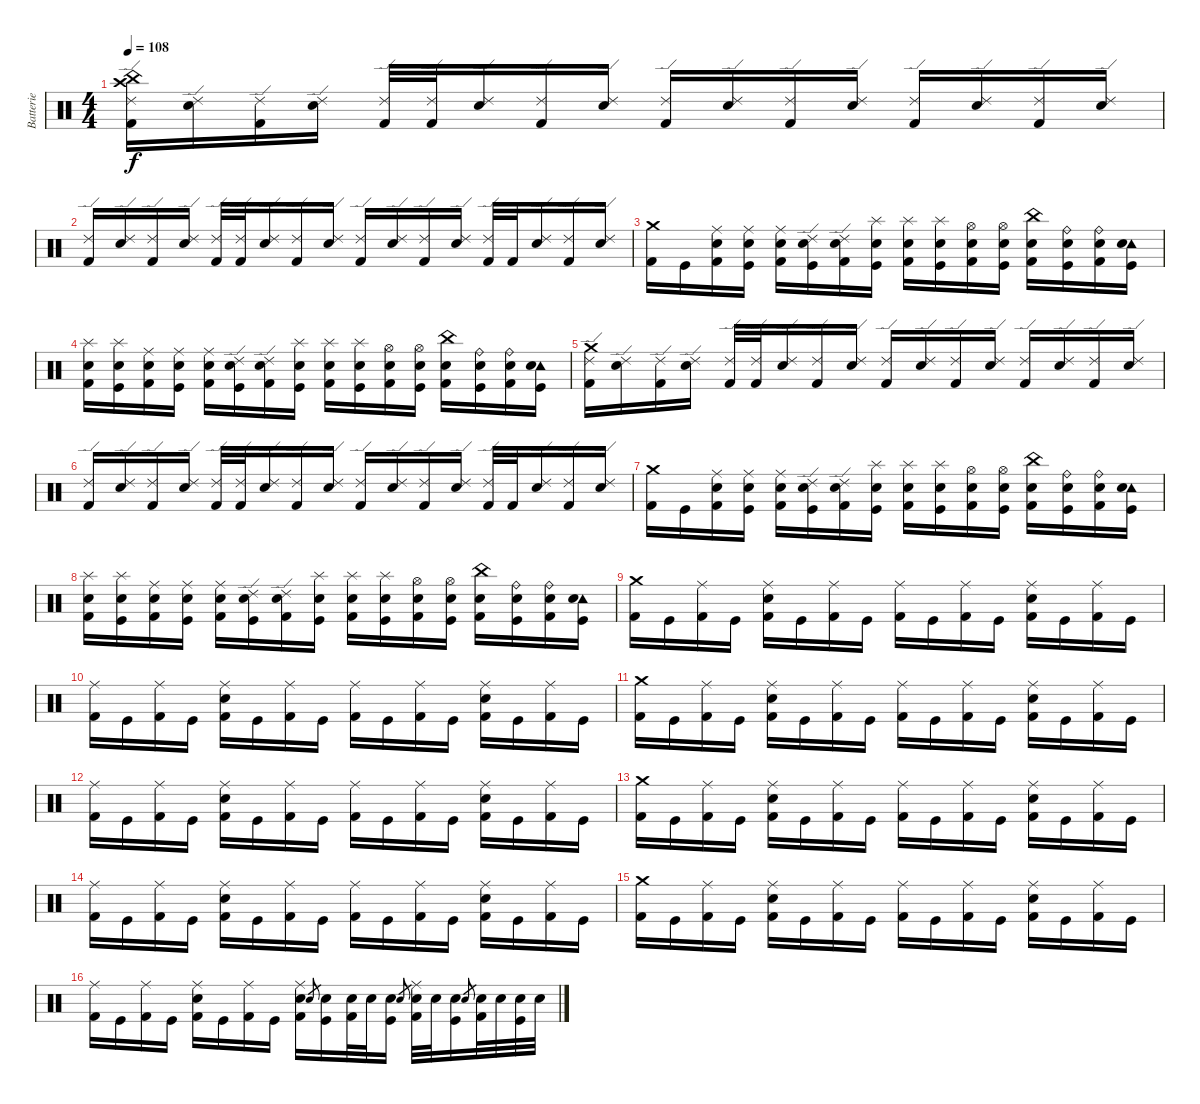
\track ("Batterie" "Batterie") {instrument percussion}
\staff {score}
\articulation defaults
\ts (4 4)
\tempo 108
\clef neutral
\ks c
("Crash high (hit)" "Ride (edge) 2" "China (hit)" "Kick (hit) 2").16{dy f} ("Ride (edge) 2" "Snare (hit) 2").16 ("Ride (edge) 2" "Kick (hit) 2").16 ("Ride (edge) 2" "Snare (hit) 2").16 ("Ride (edge) 2" "Kick (hit) 2").32 ("Ride (edge) 2" "Kick (hit) 2").32 ("Ride (edge) 2" "Snare (hit) 2").16 ("Ride (edge) 2" "Kick (hit) 2").16 ("Ride (edge) 2" "Snare (hit) 2").16 ("Ride (edge) 2" "Kick (hit) 2").16 ("Ride (edge) 2" "Snare (hit) 2").16 ("Ride (edge) 2" "Kick (hit) 2").16 ("Ride (edge) 2" "Snare (hit) 2").16 ("Ride (edge) 2" "Kick (hit) 2").16 ("Ride (edge) 2" "Snare (hit) 2").16 ("Ride (edge) 2" "Kick (hit) 2").16 ("Ride (edge) 2" "Snare (hit) 2").16 |
("Ride (edge) 2" "Kick (hit) 2").16 ("Ride (edge) 2" "Snare (hit) 2").16 ("Ride (edge) 2" "Kick (hit) 2").16 ("Ride (edge) 2" "Snare (hit) 2").16 ("Ride (edge) 2" "Kick (hit) 2").32 ("Ride (edge) 2" "Kick (hit) 2").32 ("Ride (edge) 2" "Snare (hit) 2").16 ("Ride (edge) 2" "Kick (hit) 2").16 ("Ride (edge) 2" "Snare (hit) 2").16 ("Ride (edge) 2" "Kick (hit) 2").16 ("Ride (edge) 2" "Snare (hit) 2").16 ("Ride (edge) 2" "Kick (hit) 2").16 ("Ride (edge) 2" "Snare (hit) 2").16 ("Ride (edge) 2" "Kick (hit) 2").32 "Kick (hit) 2".32 ("Ride (edge) 2" "Snare (hit) 2").16 ("Ride (edge) 2" "Kick (hit) 2").16 ("Ride (edge) 2" "Snare (hit) 2").16 |
("Crash medium (hit)" "Kick (hit) 2").16 "Kick (hit)".16 ("Ride (middle)" "Snare (hit) 2" "Kick (hit) 2").16 ("Ride (middle)" "Snare (hit) 2" "Kick (hit)").16 ("Ride (middle)" "Snare (hit) 2" "Kick (hit) 2").16 ("Ride (edge) 2" "Snare (hit) 2" "Kick (hit)").16 ("Ride (edge) 2" "Snare (hit) 2" "Kick (hit) 2").16 ("Splash (hit)" "Snare (hit) 2" "Kick (hit)").16 ("Splash (hit)" "Snare (hit) 2" "Kick (hit) 2").16 ("Splash (hit)" "Snare (hit) 2" "Kick (hit)").16 ("Hi-Hat (open)" "Snare (hit) 2" "Kick (hit) 2").16 ("Hi-Hat (open)" "Snare (hit) 2" "Kick (hit)").16 ("China (hit)" "Snare (hit) 2" "Kick (hit) 2").16 ("Ride (bell)" "Snare (hit) 2" "Kick (hit)").16 ("Ride (bell)" "Snare (hit) 2" "Kick (hit) 2").16 ("Tambourine (hit)" "Snare (hit) 2" "Kick (hit)").16 |
("Splash (hit)" "Snare (hit) 2" "Kick (hit) 2").16 ("Splash (hit)" "Snare (hit) 2" "Kick (hit)").16 ("Ride (middle)" "Snare (hit) 2" "Kick (hit) 2").16 ("Ride (middle)" "Snare (hit) 2" "Kick (hit)").16 ("Ride (middle)" "Snare (hit) 2" "Kick (hit) 2").16 ("Ride (edge) 2" "Snare (hit) 2" "Kick (hit)").16 ("Ride (edge) 2" "Snare (hit) 2" "Kick (hit) 2").16 ("Splash (hit)" "Snare (hit) 2" "Kick (hit)").16 ("Splash (hit)" "Snare (hit) 2" "Kick (hit) 2").16 ("Splash (hit)" "Snare (hit) 2" "Kick (hit)").16 ("Hi-Hat (open)" "Snare (hit) 2" "Kick (hit) 2").16 ("Hi-Hat (open)" "Snare (hit) 2" "Kick (hit)").16 ("China (hit)" "Snare (hit) 2" "Kick (hit) 2").16 ("Ride (bell)" "Snare (hit) 2" "Kick (hit)").16 ("Ride (bell)" "Snare (hit) 2" "Kick (hit) 2").16 ("Tambourine (hit)" "Snare (hit) 2" "Kick (hit)").16 |
("Crash medium (hit)" "Ride (edge) 2" "Kick (hit) 2").16 ("Ride (edge) 2" "Snare (hit) 2").16 ("Ride (edge) 2" "Kick (hit) 2").16 ("Ride (edge) 2" "Snare (hit) 2").16 ("Ride (edge) 2" "Kick (hit) 2").32 ("Ride (edge) 2" "Kick (hit) 2").32 ("Ride (edge) 2" "Snare (hit) 2").16 ("Ride (edge) 2" "Kick (hit) 2").16 ("Ride (edge) 2" "Snare (hit) 2").16 ("Ride (edge) 2" "Kick (hit) 2").16 ("Ride (edge) 2" "Snare (hit) 2").16 ("Ride (edge) 2" "Kick (hit) 2").16 ("Ride (edge) 2" "Snare (hit) 2").16 ("Ride (edge) 2" "Kick (hit) 2").16 ("Ride (edge) 2" "Snare (hit) 2").16 ("Ride (edge) 2" "Kick (hit) 2").16 ("Ride (edge) 2" "Snare (hit) 2").16 |
("Ride (edge) 2" "Kick (hit) 2").16 ("Ride (edge) 2" "Snare (hit) 2").16 ("Ride (edge) 2" "Kick (hit) 2").16 ("Ride (edge) 2" "Snare (hit) 2").16 ("Ride (edge) 2" "Kick (hit) 2").32 ("Ride (edge) 2" "Kick (hit) 2").32 ("Ride (edge) 2" "Snare (hit) 2").16 ("Ride (edge) 2" "Kick (hit) 2").16 ("Ride (edge) 2" "Snare (hit) 2").16 ("Ride (edge) 2" "Kick (hit) 2").16 ("Ride (edge) 2" "Snare (hit) 2").16 ("Ride (edge) 2" "Kick (hit) 2").16 ("Ride (edge) 2" "Snare (hit) 2").16 ("Ride (edge) 2" "Kick (hit) 2").32 "Kick (hit) 2".32 ("Ride (edge) 2" "Snare (hit) 2").16 ("Ride (edge) 2" "Kick (hit) 2").16 ("Ride (edge) 2" "Snare (hit) 2").16 |
("Crash medium (hit)" "Kick (hit) 2").16 "Kick (hit)".16 ("Ride (middle)" "Snare (hit) 2" "Kick (hit) 2").16 ("Ride (middle)" "Snare (hit) 2" "Kick (hit)").16 ("Ride (middle)" "Snare (hit) 2" "Kick (hit) 2").16 ("Ride (edge) 2" "Snare (hit) 2" "Kick (hit)").16 ("Ride (edge) 2" "Snare (hit) 2" "Kick (hit) 2").16 ("Splash (hit)" "Snare (hit) 2" "Kick (hit)").16 ("Splash (hit)" "Snare (hit) 2" "Kick (hit) 2").16 ("Splash (hit)" "Snare (hit) 2" "Kick (hit)").16 ("Hi-Hat (open)" "Snare (hit) 2" "Kick (hit) 2").16 ("Hi-Hat (open)" "Snare (hit) 2" "Kick (hit)").16 ("China (hit)" "Snare (hit) 2" "Kick (hit) 2").16 ("Ride (bell)" "Snare (hit) 2" "Kick (hit)").16 ("Ride (bell)" "Snare (hit) 2" "Kick (hit) 2").16 ("Tambourine (hit)" "Snare (hit) 2" "Kick (hit)").16 |
("Splash (hit)" "Snare (hit) 2" "Kick (hit) 2").16 ("Splash (hit)" "Snare (hit) 2" "Kick (hit)").16 ("Ride (middle)" "Snare (hit) 2" "Kick (hit) 2").16 ("Ride (middle)" "Snare (hit) 2" "Kick (hit)").16 ("Ride (middle)" "Snare (hit) 2" "Kick (hit) 2").16 ("Ride (edge) 2" "Snare (hit) 2" "Kick (hit)").16 ("Ride (edge) 2" "Snare (hit) 2" "Kick (hit) 2").16 ("Splash (hit)" "Snare (hit) 2" "Kick (hit)").16 ("Splash (hit)" "Snare (hit) 2" "Kick (hit) 2").16 ("Splash (hit)" "Snare (hit) 2" "Kick (hit)").16 ("Hi-Hat (open)" "Snare (hit) 2" "Kick (hit) 2").16 ("Hi-Hat (open)" "Snare (hit) 2" "Kick (hit)").16 ("China (hit)" "Snare (hit) 2" "Kick (hit) 2").16 ("Ride (bell)" "Snare (hit) 2" "Kick (hit)").16 ("Ride (bell)" "Snare (hit) 2" "Kick (hit) 2").16 ("Tambourine (hit)" "Snare (hit) 2" "Kick (hit)").16 |
("Crash medium (hit)" "Kick (hit) 2").16 "Kick (hit)".16 ("Ride (middle)" "Kick (hit) 2").16 "Kick (hit)".16 ("Ride (middle)" "Snare (hit) 2" "Kick (hit) 2").16 "Kick (hit)".16 ("Ride (middle)" "Kick (hit) 2").16 "Kick (hit)".16 ("Ride (middle)" "Kick (hit) 2").16 "Kick (hit)".16 ("Ride (middle)" "Kick (hit) 2").16 "Kick (hit)".16 ("Ride (middle)" "Snare (hit) 2" "Kick (hit) 2").16 "Kick (hit)".16 ("Ride (middle)" "Kick (hit) 2").16 "Kick (hit)".16 |
("Ride (middle)" "Kick (hit) 2").16 "Kick (hit)".16 ("Ride (middle)" "Kick (hit) 2").16 "Kick (hit)".16 ("Ride (middle)" "Snare (hit) 2" "Kick (hit) 2").16 "Kick (hit)".16 ("Ride (middle)" "Kick (hit) 2").16 "Kick (hit)".16 ("Ride (middle)" "Kick (hit) 2").16 "Kick (hit)".16 ("Ride (middle)" "Kick (hit) 2").16 "Kick (hit)".16 ("Ride (middle)" "Snare (hit) 2" "Kick (hit) 2").16 "Kick (hit)".16 ("Ride (middle)" "Kick (hit) 2").16 "Kick (hit)".16 |
("Crash medium (hit)" "Kick (hit) 2").16 "Kick (hit)".16 ("Ride (middle)" "Kick (hit) 2").16 "Kick (hit)".16 ("Ride (middle)" "Snare (hit) 2" "Kick (hit) 2").16 "Kick (hit)".16 ("Ride (middle)" "Kick (hit) 2").16 "Kick (hit)".16 ("Ride (middle)" "Kick (hit) 2").16 "Kick (hit)".16 ("Ride (middle)" "Kick (hit) 2").16 "Kick (hit)".16 ("Ride (middle)" "Snare (hit) 2" "Kick (hit) 2").16 "Kick (hit)".16 ("Ride (middle)" "Kick (hit) 2").16 "Kick (hit)".16 |
("Ride (middle)" "Kick (hit) 2").16 "Kick (hit)".16 ("Ride (middle)" "Kick (hit) 2").16 "Kick (hit)".16 ("Ride (middle)" "Snare (hit) 2" "Kick (hit) 2").16 "Kick (hit)".16 ("Ride (middle)" "Kick (hit) 2").16 "Kick (hit)".16 ("Ride (middle)" "Kick (hit) 2").16 "Kick (hit)".16 ("Ride (middle)" "Kick (hit) 2").16 "Kick (hit)".16 ("Ride (middle)" "Snare (hit) 2" "Kick (hit) 2").16 "Kick (hit)".16 ("Ride (middle)" "Kick (hit) 2").16 "Kick (hit)".16 |
("Crash medium (hit)" "Kick (hit) 2").16 "Kick (hit)".16 ("Ride (middle)" "Kick (hit) 2").16 "Kick (hit)".16 ("Ride (middle)" "Snare (hit) 2" "Kick (hit) 2").16 "Kick (hit)".16 ("Ride (middle)" "Kick (hit) 2").16 "Kick (hit)".16 ("Ride (middle)" "Kick (hit) 2").16 "Kick (hit)".16 ("Ride (middle)" "Kick (hit) 2").16 "Kick (hit)".16 ("Ride (middle)" "Snare (hit) 2" "Kick (hit) 2").16 "Kick (hit)".16 ("Ride (middle)" "Kick (hit) 2").16 "Kick (hit)".16 |
("Ride (middle)" "Kick (hit) 2").16 "Kick (hit)".16 ("Ride (middle)" "Kick (hit) 2").16 "Kick (hit)".16 ("Ride (middle)" "Snare (hit) 2" "Kick (hit) 2").16 "Kick (hit)".16 ("Ride (middle)" "Kick (hit) 2").16 "Kick (hit)".16 ("Ride (middle)" "Kick (hit) 2").16 "Kick (hit)".16 ("Ride (middle)" "Kick (hit) 2").16 "Kick (hit)".16 ("Ride (middle)" "Snare (hit) 2" "Kick (hit) 2").16 "Kick (hit)".16 ("Ride (middle)" "Kick (hit) 2").16 "Kick (hit)".16 |
("Crash medium (hit)" "Kick (hit) 2").16 "Kick (hit)".16 ("Ride (middle)" "Kick (hit) 2").16 "Kick (hit)".16 ("Ride (middle)" "Snare (hit) 2" "Kick (hit) 2").16 "Kick (hit)".16 ("Ride (middle)" "Kick (hit) 2").16 "Kick (hit)".16 ("Ride (middle)" "Kick (hit) 2").16 "Kick (hit)".16 ("Ride (middle)" "Kick (hit) 2").16 "Kick (hit)".16 ("Ride (middle)" "Snare (hit) 2" "Kick (hit) 2").16 "Kick (hit)".16 ("Ride (middle)" "Kick (hit) 2").16 "Kick (hit)".16 |
("Ride (middle)" "Kick (hit) 2").16 "Kick (hit)".16 ("Ride (middle)" "Kick (hit) 2").16 "Kick (hit)".16 ("Ride (middle)" "Snare (hit) 2" "Kick (hit) 2").16 "Kick (hit)".16 ("Ride (middle)" "Kick (hit) 2").16 "Kick (hit)".16 ("Ride (middle)" "Snare (hit) 2" "Kick (hit) 2").16 "Snare (hit) 2".8{gr} ("Snare (hit) 2" "Kick (hit)").16 ("Snare (hit) 2" "Kick (hit) 2").32 "Snare (hit) 2".32 ("Snare (hit) 2" "Kick (hit)").16 "Snare (hit) 2".8{gr} ("Ride (middle)" "Snare (hit) 2" "Kick (hit) 2").32 "Snare (hit) 2".32 ("Snare (hit) 2" "Kick (hit)").16 "Snare (hit) 2".8{gr} ("Snare (hit) 2" "Kick (hit) 2").32 "Snare (hit) 2".32 ("Snare (hit) 2" "Kick (hit)").32 "Snare (hit) 2".32
